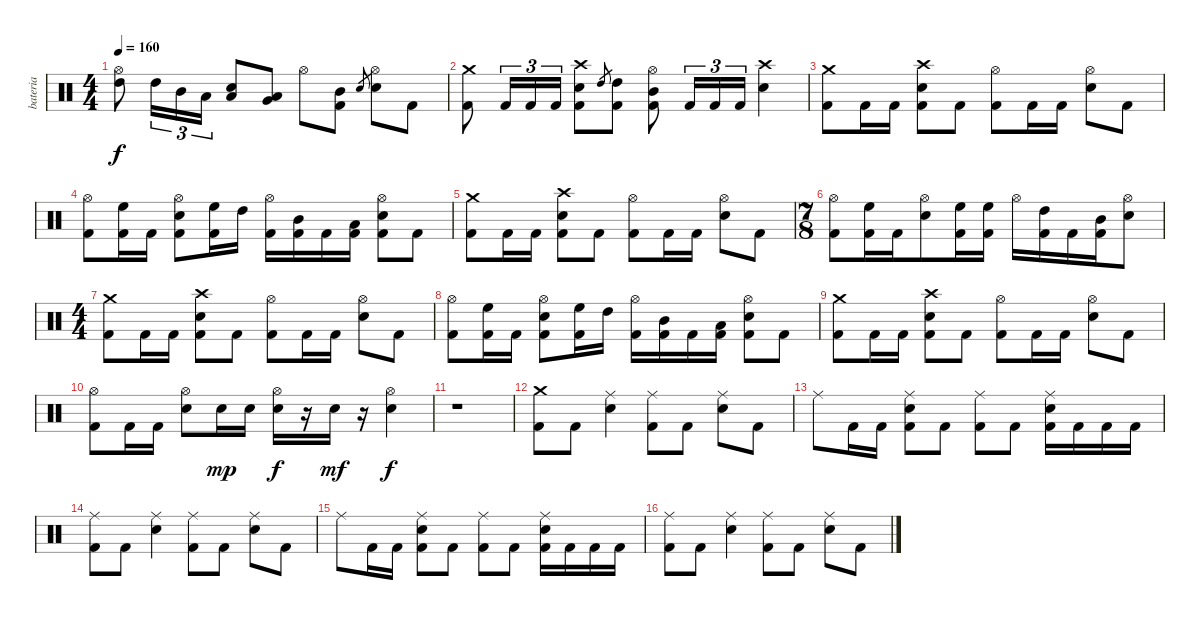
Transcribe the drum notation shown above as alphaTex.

\track ("bateria" "bateria") {instrument percussion}
\staff {score}
\articulation defaults
\ts (4 4)
\tempo 160
\clef neutral
\ks c
("Hi-Hat (open)" "High Tom (hit)").8{dy f} "High Tom (hit)".16{tu (3 2)} "Mid Tom (hit)".16{tu (3 2)} "Low Tom (hit)".16{tu (3 2)} ("Low Tom (hit)" "Electric Snare (hit)").8 ("Low Floor Tom (hit)" "Very Low Tom (hit)").8 "Hi-Hat (open)".8 ("Mid Tom (hit)" "Kick (hit) 2").8 "Electric Snare (hit)".8{gr} ("Hi-Hat (open)" "Electric Snare (hit)").8 "Kick (hit) 2".8 |
("Crash medium (hit)" "Kick (hit) 2").8 "Kick (hit) 2".16{tu (3 2)} "Kick (hit) 2".16{tu (3 2)} "Kick (hit) 2".16{tu (3 2)} ("Crash high (hit)" "Electric Snare (hit)" "Kick (hit) 2").8 "High Tom (hit)".8{gr} ("High Tom (hit)" "Kick (hit) 2").8 ("Hi-Hat (open)" "Mid Tom (hit)" "Kick (hit) 2").8 "Kick (hit) 2".16{tu (3 2)} "Kick (hit) 2".16{tu (3 2)} "Kick (hit) 2".16{tu (3 2)} ("Crash high (hit)" "Electric Snare (hit)").4 |
("Crash medium (hit)" "Kick (hit) 2").8 "Kick (hit) 2".16 "Kick (hit) 2".16 ("Crash high (hit)" "Electric Snare (hit)" "Kick (hit) 2").8 "Kick (hit) 2".8 ("Hi-Hat (open)" "Kick (hit) 2").8 "Kick (hit) 2".16 "Kick (hit) 2".16 ("Hi-Hat (open)" "Electric Snare (hit)").8 "Kick (hit) 2".8 |
("Hi-Hat (open)" "Kick (hit) 2").8 ("High Floor Tom (hit)" "Kick (hit) 2").16 "Kick (hit) 2".16 ("Hi-Hat (open)" "Electric Snare (hit)" "Kick (hit) 2").8 ("High Floor Tom (hit)" "Kick (hit) 2").16 "High Tom (hit)".16 ("Hi-Hat (open)" "Kick (hit) 2").16 ("Mid Tom (hit)" "Kick (hit) 2").16 "Kick (hit) 2".16 ("Low Tom (hit)" "Kick (hit) 2").16 ("Hi-Hat (open)" "Electric Snare (hit)" "Kick (hit) 2").8 "Kick (hit) 2".8 |
("Crash medium (hit)" "Kick (hit) 2").8 "Kick (hit) 2".16 "Kick (hit) 2".16 ("Crash high (hit)" "Electric Snare (hit)" "Kick (hit) 2").8 "Kick (hit) 2".8 ("Hi-Hat (open)" "Kick (hit) 2").8 "Kick (hit) 2".16 "Kick (hit) 2".16 ("Hi-Hat (open)" "Electric Snare (hit)").8 "Kick (hit) 2".8 |
\ts (7 8)
("Hi-Hat (open)" "Kick (hit) 2").8 ("High Floor Tom (hit)" "Kick (hit) 2").16 "Kick (hit) 2".16 ("Hi-Hat (open)" "Electric Snare (hit)").8 ("High Floor Tom (hit)" "Kick (hit) 2").16 ("High Floor Tom (hit)" "Kick (hit) 2").16 "Hi-Hat (open)".16 ("High Tom (hit)" "Kick (hit) 2").16 "Kick (hit) 2".16 ("Mid Tom (hit)" "Kick (hit) 2").16 ("Hi-Hat (open)" "Electric Snare (hit)").8 |
\ts (4 4)
("Crash medium (hit)" "Kick (hit) 2").8 "Kick (hit) 2".16 "Kick (hit) 2".16 ("Crash high (hit)" "Electric Snare (hit)" "Kick (hit) 2").8 "Kick (hit) 2".8 ("Hi-Hat (open)" "Kick (hit) 2").8 "Kick (hit) 2".16 "Kick (hit) 2".16 ("Hi-Hat (open)" "Electric Snare (hit)").8 "Kick (hit) 2".8 |
("Hi-Hat (open)" "Kick (hit) 2").8 ("High Floor Tom (hit)" "Kick (hit) 2").16 "Kick (hit) 2".16 ("Hi-Hat (open)" "Electric Snare (hit)" "Kick (hit) 2").8 ("High Floor Tom (hit)" "Kick (hit) 2").16 "High Tom (hit)".16 ("Hi-Hat (open)" "Kick (hit) 2").16 ("Mid Tom (hit)" "Kick (hit) 2").16 "Kick (hit) 2".16 ("Low Tom (hit)" "Kick (hit) 2").16 ("Hi-Hat (open)" "Electric Snare (hit)" "Kick (hit) 2").8 "Kick (hit) 2".8 |
("Crash medium (hit)" "Kick (hit) 2").8 "Kick (hit) 2".16 "Kick (hit) 2".16 ("Crash high (hit)" "Electric Snare (hit)" "Kick (hit) 2").8 "Kick (hit) 2".8 ("Hi-Hat (open)" "Kick (hit) 2").8 "Kick (hit) 2".16 "Kick (hit) 2".16 ("Hi-Hat (open)" "Electric Snare (hit)").8 "Kick (hit) 2".8 |
("Hi-Hat (open)" "Kick (hit) 2").8 "Kick (hit) 2".16 "Kick (hit) 2".16 ("Hi-Hat (open)" "Electric Snare (hit)").8 "Electric Snare (hit)".16{dy mp} "Electric Snare (hit)".16 ("Hi-Hat (open)" "Electric Snare (hit)").16{dy f} r.16 "Electric Snare (hit)".16{dy mf} r.16 ("Hi-Hat (open)" "Electric Snare (hit)").4{dy f} |
r.1 |
("Crash medium (hit)" "Kick (hit) 2").8 "Kick (hit) 2".8 ("Ride (middle)" "Electric Snare (hit)").4 ("Ride (middle)" "Kick (hit) 2").8 "Kick (hit) 2".8 ("Ride (middle)" "Electric Snare (hit)").8 "Kick (hit) 2".8 |
"Ride (middle)".8 "Kick (hit) 2".16 "Kick (hit) 2".16 ("Ride (middle)" "Electric Snare (hit)" "Kick (hit) 2").8 "Kick (hit) 2".8 ("Ride (middle)" "Kick (hit) 2").8 "Kick (hit) 2".8 ("Ride (middle)" "Electric Snare (hit)" "Kick (hit) 2").16 "Kick (hit) 2".16 "Kick (hit) 2".16 "Kick (hit) 2".16 |
("Ride (middle)" "Kick (hit) 2").8 "Kick (hit) 2".8 ("Ride (middle)" "Electric Snare (hit)").4 ("Ride (middle)" "Kick (hit) 2").8 "Kick (hit) 2".8 ("Ride (middle)" "Electric Snare (hit)").8 "Kick (hit) 2".8 |
"Ride (middle)".8 "Kick (hit) 2".16 "Kick (hit) 2".16 ("Ride (middle)" "Electric Snare (hit)" "Kick (hit) 2").8 "Kick (hit) 2".8 ("Ride (middle)" "Kick (hit) 2").8 "Kick (hit) 2".8 ("Ride (middle)" "Electric Snare (hit)" "Kick (hit) 2").16 "Kick (hit) 2".16 "Kick (hit) 2".16 "Kick (hit) 2".16 |
("Ride (middle)" "Kick (hit) 2").8 "Kick (hit) 2".8 ("Ride (middle)" "Electric Snare (hit)").4 ("Ride (middle)" "Kick (hit) 2").8 "Kick (hit) 2".8 ("Ride (middle)" "Electric Snare (hit)").8 "Kick (hit) 2".8
